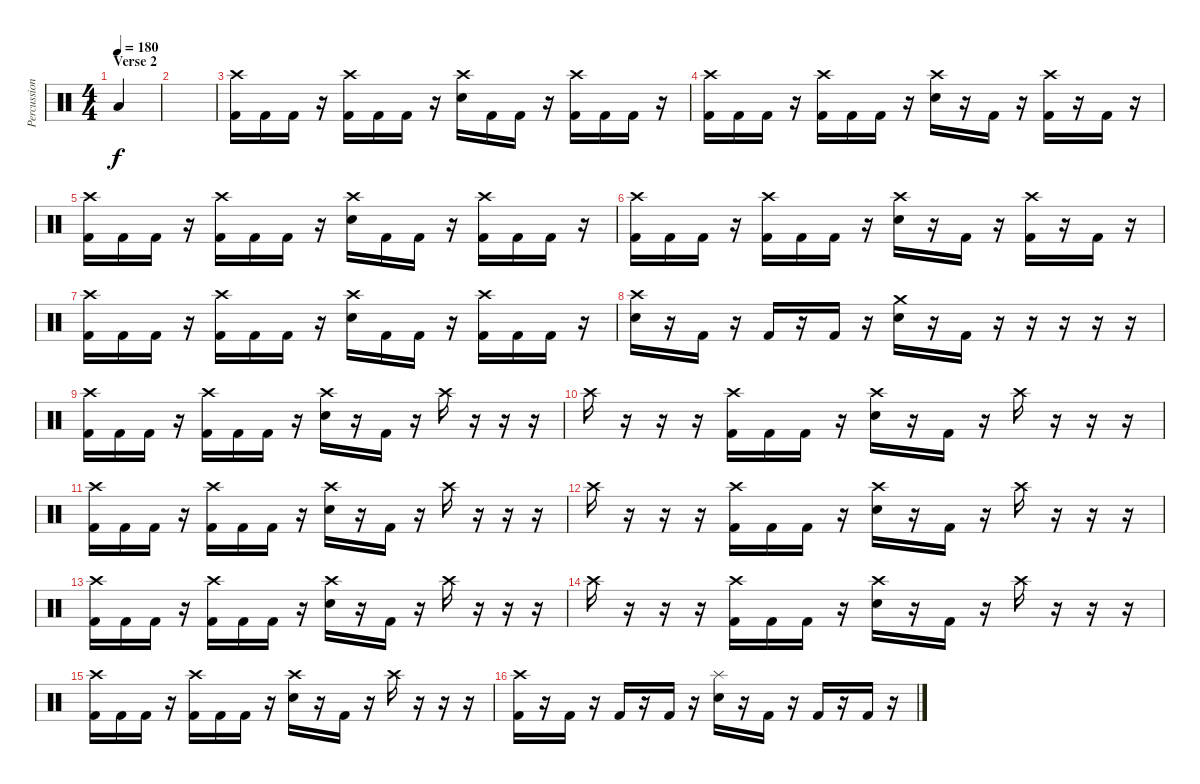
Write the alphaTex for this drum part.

\track ("Percussion" "Percussion") {instrument percussion}
\staff {score}
\articulation defaults
\ts (4 4)
\section ("" "Verse 2")
\tempo 180
\clef neutral
\ks c "Low Floor Tom (hit)".4{dy f}
|
|
("Crash high (hit)" "Kick (hit) 2").16 "Kick (hit) 2".16 "Kick (hit) 2".16 r.16 ("Crash high (hit)" "Kick (hit) 2").16 "Kick (hit) 2".16 "Kick (hit) 2".16 r.16 ("Crash high (hit)" "Electric Snare (hit)").16 "Kick (hit) 2".16 "Kick (hit) 2".16 r.16 ("Crash high (hit)" "Kick (hit) 2").16 "Kick (hit) 2".16 "Kick (hit) 2".16 r.16 |
("Crash high (hit)" "Kick (hit) 2").16 "Kick (hit) 2".16 "Kick (hit) 2".16 r.16 ("Crash high (hit)" "Kick (hit) 2").16 "Kick (hit) 2".16 "Kick (hit) 2".16 r.16 ("Crash high (hit)" "Electric Snare (hit)").16 r.16 "Kick (hit) 2".16 r.16 ("Crash high (hit)" "Kick (hit) 2").16 r.16 "Kick (hit) 2".16 r.16 |
("Crash high (hit)" "Kick (hit) 2").16 "Kick (hit) 2".16 "Kick (hit) 2".16 r.16 ("Crash high (hit)" "Kick (hit) 2").16 "Kick (hit) 2".16 "Kick (hit) 2".16 r.16 ("Crash high (hit)" "Electric Snare (hit)").16 "Kick (hit) 2".16 "Kick (hit) 2".16 r.16 ("Crash high (hit)" "Kick (hit) 2").16 "Kick (hit) 2".16 "Kick (hit) 2".16 r.16 |
("Crash high (hit)" "Kick (hit) 2").16 "Kick (hit) 2".16 "Kick (hit) 2".16 r.16 ("Crash high (hit)" "Kick (hit) 2").16 "Kick (hit) 2".16 "Kick (hit) 2".16 r.16 ("Crash high (hit)" "Electric Snare (hit)").16 r.16 "Kick (hit) 2".16 r.16 ("Crash high (hit)" "Kick (hit) 2").16 r.16 "Kick (hit) 2".16 r.16 |
("Crash high (hit)" "Kick (hit) 2").16 "Kick (hit) 2".16 "Kick (hit) 2".16 r.16 ("Crash high (hit)" "Kick (hit) 2").16 "Kick (hit) 2".16 "Kick (hit) 2".16 r.16 ("Crash high (hit)" "Electric Snare (hit)").16 "Kick (hit) 2".16 "Kick (hit) 2".16 r.16 ("Crash high (hit)" "Kick (hit) 2").16 "Kick (hit) 2".16 "Kick (hit) 2".16 r.16 |
("Crash high (hit)" "Electric Snare (hit)").16 r.16 "Kick (hit) 2".16 r.16 "Kick (hit) 2".16 r.16 "Kick (hit) 2".16 r.16 ("Crash medium (hit)" "Electric Snare (hit)").16 r.16 "Kick (hit) 2".16 r.16 r.16 r.16 r.16 r.16 |
("Crash high (hit)" "Kick (hit) 2").16 "Kick (hit) 2".16 "Kick (hit) 2".16 r.16 ("Crash high (hit)" "Kick (hit) 2").16 "Kick (hit) 2".16 "Kick (hit) 2".16 r.16 ("Crash high (hit)" "Electric Snare (hit)").16 r.16 "Kick (hit) 2".16 r.16 "Crash high (hit)".16 r.16 r.16 r.16 |
"Crash high (hit)".16 r.16 r.16 r.16 ("Crash high (hit)" "Kick (hit) 2").16 "Kick (hit) 2".16 "Kick (hit) 2".16 r.16 ("Crash high (hit)" "Electric Snare (hit)").16 r.16 "Kick (hit) 2".16 r.16 "Crash high (hit)".16 r.16 r.16 r.16 |
("Crash high (hit)" "Kick (hit) 2").16 "Kick (hit) 2".16 "Kick (hit) 2".16 r.16 ("Crash high (hit)" "Kick (hit) 2").16 "Kick (hit) 2".16 "Kick (hit) 2".16 r.16 ("Crash high (hit)" "Electric Snare (hit)").16 r.16 "Kick (hit) 2".16 r.16 "Crash high (hit)".16 r.16 r.16 r.16 |
"Crash high (hit)".16 r.16 r.16 r.16 ("Crash high (hit)" "Kick (hit) 2").16 "Kick (hit) 2".16 "Kick (hit) 2".16 r.16 ("Crash high (hit)" "Electric Snare (hit)").16 r.16 "Kick (hit) 2".16 r.16 "Crash high (hit)".16 r.16 r.16 r.16 |
("Crash high (hit)" "Kick (hit) 2").16 "Kick (hit) 2".16 "Kick (hit) 2".16 r.16 ("Crash high (hit)" "Kick (hit) 2").16 "Kick (hit) 2".16 "Kick (hit) 2".16 r.16 ("Crash high (hit)" "Electric Snare (hit)").16 r.16 "Kick (hit) 2".16 r.16 "Crash high (hit)".16 r.16 r.16 r.16 |
"Crash high (hit)".16 r.16 r.16 r.16 ("Crash high (hit)" "Kick (hit) 2").16 "Kick (hit) 2".16 "Kick (hit) 2".16 r.16 ("Crash high (hit)" "Electric Snare (hit)").16 r.16 "Kick (hit) 2".16 r.16 "Crash high (hit)".16 r.16 r.16 r.16 |
("Crash high (hit)" "Kick (hit) 2").16 "Kick (hit) 2".16 "Kick (hit) 2".16 r.16 ("Crash high (hit)" "Kick (hit) 2").16 "Kick (hit) 2".16 "Kick (hit) 2".16 r.16 ("Crash high (hit)" "Electric Snare (hit)").16 r.16 "Kick (hit) 2".16 r.16 "Crash high (hit)".16 r.16 r.16 r.16 |
("Crash high (hit)" "Kick (hit) 2").16 r.16 "Kick (hit) 2".16 r.16 "Kick (hit) 2".16 r.16 "Kick (hit) 2".16 r.16 ("Splash (hit)" "Electric Snare (hit)").16 r.16 "Kick (hit) 2".16 r.16 "Kick (hit) 2".16 r.16 "Kick (hit) 2".16 r.16
